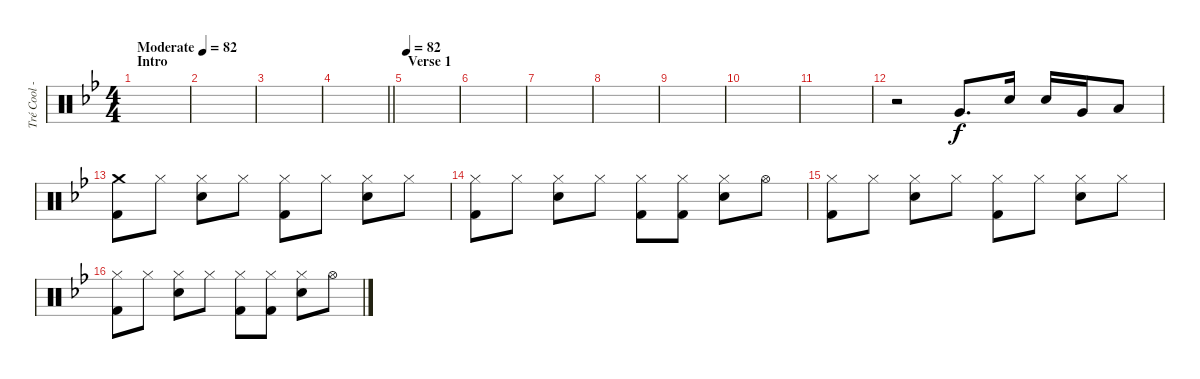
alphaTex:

\track ("Tré Cool - Drums" "Tré Cool -") {instrument percussion}
\staff {score}
\articulation defaults
\ts (4 4)
\section ("" "Intro")
\tempo (82 "Moderate")
\tempo 74
\tempo (82 "Moderate")
\clef neutral
\ks gminor
|
|
|
\barLineRight lightlight
|
\section ("" "Verse 1")
\tempo 82
|
|
|
|
|
|
|
r.2 "Very Low Tom (hit)".8{d} "Electric Snare (hit)".16 "Electric Snare (hit)".16 "Very Low Tom (hit)".16 "Low Floor Tom (hit)".8 |
("Crash medium (hit)" "Kick (hit) 2").8 "Hi-Hat (closed)".8 ("Hi-Hat (closed)" "Electric Snare (hit)").8 "Hi-Hat (closed)".8 ("Hi-Hat (closed)" "Kick (hit) 2").8 "Hi-Hat (closed)".8 ("Hi-Hat (closed)" "Electric Snare (hit)").8 "Hi-Hat (closed)".8 |
("Hi-Hat (closed)" "Kick (hit) 2").8 "Hi-Hat (closed)".8 ("Hi-Hat (closed)" "Electric Snare (hit)").8 "Hi-Hat (closed)".8 ("Hi-Hat (closed)" "Kick (hit) 2").8 ("Hi-Hat (closed)" "Kick (hit) 2").8 ("Hi-Hat (closed)" "Electric Snare (hit)").8 "Hi-Hat (open)".8 |
("Hi-Hat (closed)" "Kick (hit) 2").8 "Hi-Hat (closed)".8 ("Hi-Hat (closed)" "Electric Snare (hit)").8 "Hi-Hat (closed)".8 ("Hi-Hat (closed)" "Kick (hit) 2").8 "Hi-Hat (closed)".8 ("Hi-Hat (closed)" "Electric Snare (hit)").8 "Hi-Hat (closed)".8 |
("Hi-Hat (closed)" "Kick (hit) 2").8 "Hi-Hat (closed)".8 ("Hi-Hat (closed)" "Electric Snare (hit)").8 "Hi-Hat (closed)".8 ("Hi-Hat (closed)" "Kick (hit) 2").8 ("Hi-Hat (closed)" "Kick (hit) 2").8 ("Hi-Hat (closed)" "Electric Snare (hit)").8 "Hi-Hat (open)".8
